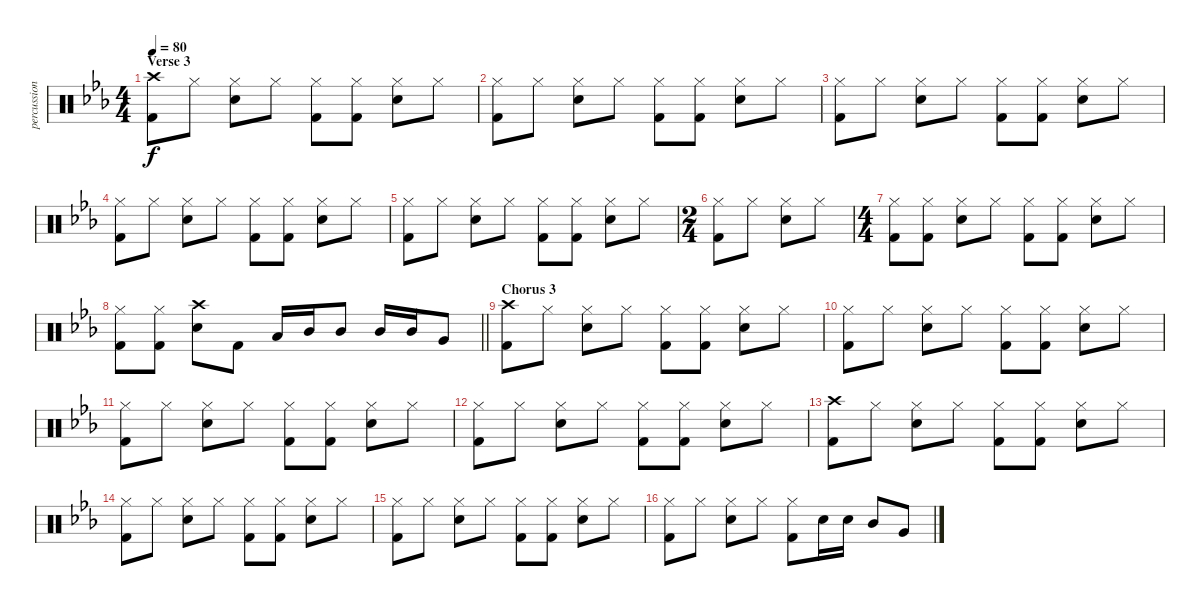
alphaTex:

\track ("percussion" "percussion") {instrument percussion}
\staff {score}
\articulation defaults
\ts (4 4)
\section ("" "Verse 3")
\tempo 80
\clef neutral
\ks eb
("Crash high (hit)" "Kick (hit) 2").8{dy f} "Hi-Hat (closed)".8 ("Snare (hit) 2" "Hi-Hat (closed)").8 "Hi-Hat (closed)".8 ("Hi-Hat (closed)" "Kick (hit) 2").8 ("Hi-Hat (closed)" "Kick (hit) 2").8 ("Snare (hit) 2" "Hi-Hat (closed)").8 "Hi-Hat (closed)".8 |
("Hi-Hat (closed)" "Kick (hit) 2").8 "Hi-Hat (closed)".8 ("Snare (hit) 2" "Hi-Hat (closed)").8 "Hi-Hat (closed)".8 ("Hi-Hat (closed)" "Kick (hit) 2").8 ("Hi-Hat (closed)" "Kick (hit) 2").8 ("Snare (hit) 2" "Hi-Hat (closed)").8 "Hi-Hat (closed)".8 |
("Hi-Hat (closed)" "Kick (hit) 2").8 "Hi-Hat (closed)".8 ("Snare (hit) 2" "Hi-Hat (closed)").8 "Hi-Hat (closed)".8 ("Hi-Hat (closed)" "Kick (hit) 2").8 ("Hi-Hat (closed)" "Kick (hit) 2").8 ("Snare (hit) 2" "Hi-Hat (closed)").8 "Hi-Hat (closed)".8 |
("Hi-Hat (closed)" "Kick (hit) 2").8 "Hi-Hat (closed)".8 ("Snare (hit) 2" "Hi-Hat (closed)").8 "Hi-Hat (closed)".8 ("Hi-Hat (closed)" "Kick (hit) 2").8 ("Hi-Hat (closed)" "Kick (hit) 2").8 ("Snare (hit) 2" "Hi-Hat (closed)").8 "Hi-Hat (closed)".8 |
("Hi-Hat (closed)" "Kick (hit) 2").8 "Hi-Hat (closed)".8 ("Snare (hit) 2" "Hi-Hat (closed)").8 "Hi-Hat (closed)".8 ("Hi-Hat (closed)" "Kick (hit) 2").8 ("Hi-Hat (closed)" "Kick (hit) 2").8 ("Snare (hit) 2" "Hi-Hat (closed)").8 "Hi-Hat (closed)".8 |
\ts (2 4)
("Hi-Hat (closed)" "Kick (hit) 2").8 "Hi-Hat (closed)".8 ("Snare (hit) 2" "Hi-Hat (closed)").8 "Hi-Hat (closed)".8 |
\ts (4 4)
("Hi-Hat (closed)" "Kick (hit) 2").8 ("Hi-Hat (closed)" "Kick (hit) 2").8 ("Snare (hit) 2" "Hi-Hat (closed)").8 "Hi-Hat (closed)".8 ("Hi-Hat (closed)" "Kick (hit) 2").8 ("Hi-Hat (closed)" "Kick (hit) 2").8 ("Snare (hit) 2" "Hi-Hat (closed)").8 "Hi-Hat (closed)".8 |
\barLineRight lightlight
("Hi-Hat (closed)" "Kick (hit) 2").8 ("Hi-Hat (closed)" "Kick (hit) 2").8 ("Crash high (hit)" "Snare (hit) 2").8 "Kick (hit) 2".8 "Low Tom (hit)".16 "Mid Tom (hit)".16 "Mid Tom (hit)".8 "Mid Tom (hit)".16 "Mid Tom (hit)".16 "Very Low Tom (hit)".8 |
\section ("" "Chorus 3")
("Crash high (hit)" "Kick (hit) 2").8 "Hi-Hat (closed)".8 ("Snare (hit) 2" "Hi-Hat (closed)").8 "Hi-Hat (closed)".8 ("Hi-Hat (closed)" "Kick (hit) 2").8 ("Hi-Hat (closed)" "Kick (hit) 2").8 ("Snare (hit) 2" "Hi-Hat (closed)").8 "Hi-Hat (closed)".8 |
("Hi-Hat (closed)" "Kick (hit) 2").8 "Hi-Hat (closed)".8 ("Snare (hit) 2" "Hi-Hat (closed)").8 "Hi-Hat (closed)".8 ("Hi-Hat (closed)" "Kick (hit) 2").8 ("Hi-Hat (closed)" "Kick (hit) 2").8 ("Snare (hit) 2" "Hi-Hat (closed)").8 "Hi-Hat (closed)".8 |
("Hi-Hat (closed)" "Kick (hit) 2").8 "Hi-Hat (closed)".8 ("Snare (hit) 2" "Hi-Hat (closed)").8 "Hi-Hat (closed)".8 ("Hi-Hat (closed)" "Kick (hit) 2").8 ("Hi-Hat (closed)" "Kick (hit) 2").8 ("Snare (hit) 2" "Hi-Hat (closed)").8 "Hi-Hat (closed)".8 |
("Hi-Hat (closed)" "Kick (hit) 2").8 "Hi-Hat (closed)".8 ("Snare (hit) 2" "Hi-Hat (closed)").8 "Hi-Hat (closed)".8 ("Hi-Hat (closed)" "Kick (hit) 2").8 ("Hi-Hat (closed)" "Kick (hit) 2").8 ("Snare (hit) 2" "Hi-Hat (closed)").8 "Hi-Hat (closed)".8 |
("Crash high (hit)" "Kick (hit) 2").8 "Hi-Hat (closed)".8 ("Snare (hit) 2" "Hi-Hat (closed)").8 "Hi-Hat (closed)".8 ("Hi-Hat (closed)" "Kick (hit) 2").8 ("Hi-Hat (closed)" "Kick (hit) 2").8 ("Snare (hit) 2" "Hi-Hat (closed)").8 "Hi-Hat (closed)".8 |
("Hi-Hat (closed)" "Kick (hit) 2").8 "Hi-Hat (closed)".8 ("Snare (hit) 2" "Hi-Hat (closed)").8 "Hi-Hat (closed)".8 ("Hi-Hat (closed)" "Kick (hit) 2").8 ("Hi-Hat (closed)" "Kick (hit) 2").8 ("Snare (hit) 2" "Hi-Hat (closed)").8 "Hi-Hat (closed)".8 |
("Hi-Hat (closed)" "Kick (hit) 2").8 "Hi-Hat (closed)".8 ("Snare (hit) 2" "Hi-Hat (closed)").8 "Hi-Hat (closed)".8 ("Hi-Hat (closed)" "Kick (hit) 2").8 ("Hi-Hat (closed)" "Kick (hit) 2").8 ("Snare (hit) 2" "Hi-Hat (closed)").8 "Hi-Hat (closed)".8 |
("Hi-Hat (closed)" "Kick (hit) 2").8 "Hi-Hat (closed)".8 ("Snare (hit) 2" "Hi-Hat (closed)").8 "Hi-Hat (closed)".8 ("Hi-Hat (closed)" "Kick (hit) 2").8 "Snare (hit) 2".16 "Snare (hit) 2".16 "Mid Tom (hit)".8 "Very Low Tom (hit)".8
